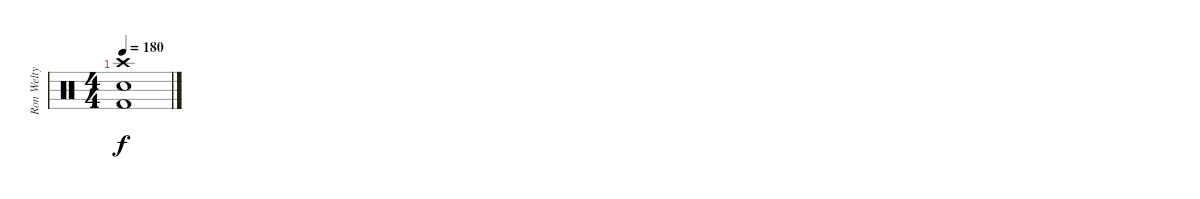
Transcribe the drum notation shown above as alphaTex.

\track ("Ron Welty (drums)" "Ron Welty ") {instrument percussion}
\staff {score}
\articulation defaults
\ts (4 4)
\tempo 180
\clef neutral
\ks c
("Crash high (hit)" "Electric Snare (hit)" "Kick (hit) 2").1{dy f}
